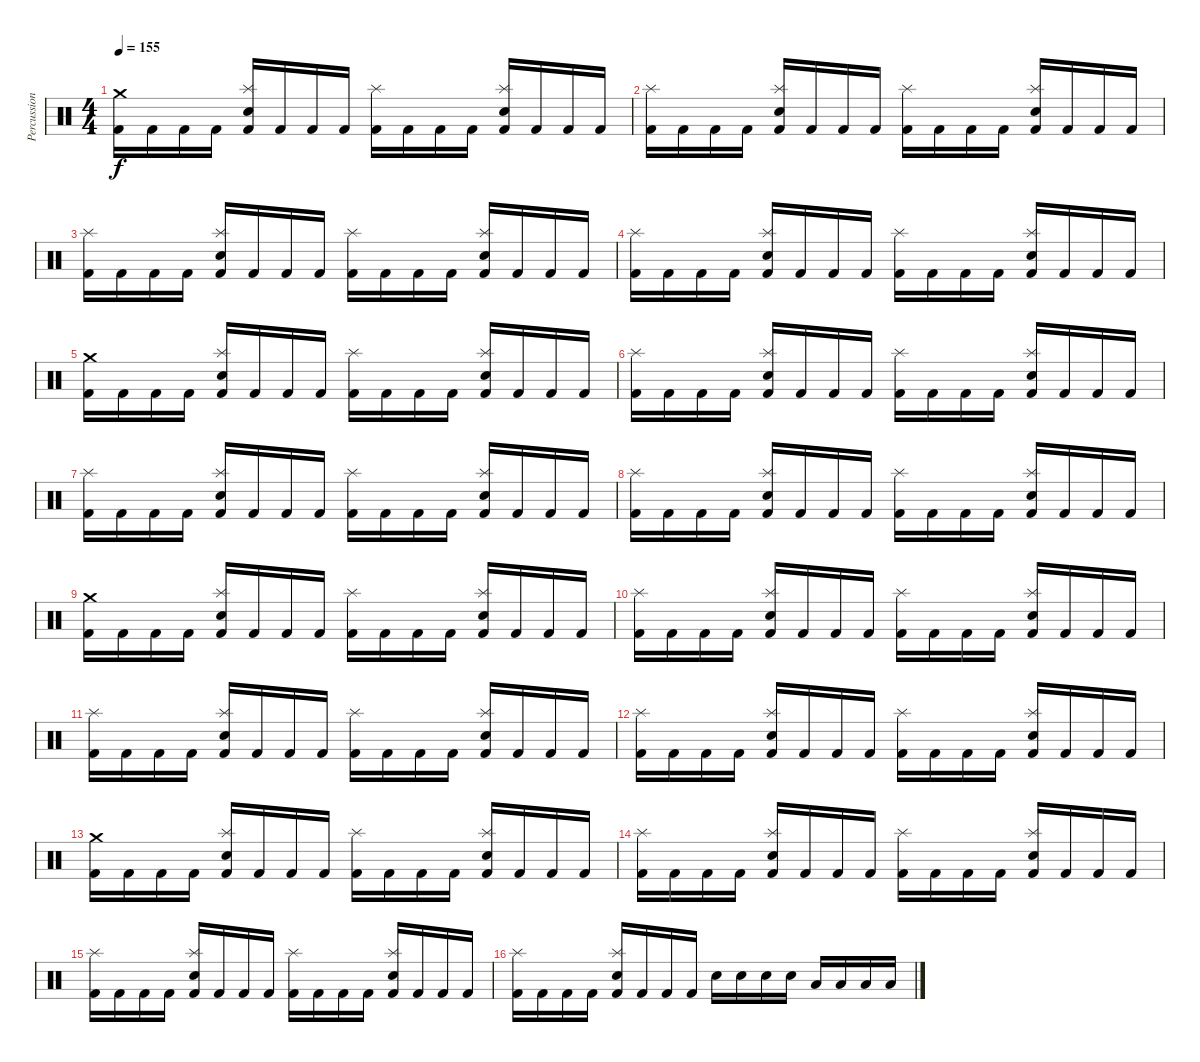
\track ("Percussions" "Percussion") {instrument percussion}
\staff {score}
\articulation defaults
\ts (4 4)
\tempo 155
\clef neutral
\ks c
("Crash medium (hit)" "Kick (hit) 2").16{dy f} "Kick (hit) 2".16 "Kick (hit) 2".16 "Kick (hit) 2".16 ("Splash (hit)" "Snare (hit) 2" "Kick (hit) 2").16 "Kick (hit) 2".16 "Kick (hit) 2".16 "Kick (hit) 2".16 ("Splash (hit)" "Kick (hit) 2").16 "Kick (hit) 2".16 "Kick (hit) 2".16 "Kick (hit) 2".16 ("Splash (hit)" "Snare (hit) 2" "Kick (hit) 2").16 "Kick (hit) 2".16 "Kick (hit) 2".16 "Kick (hit) 2".16 |
("Splash (hit)" "Kick (hit) 2").16 "Kick (hit) 2".16 "Kick (hit) 2".16 "Kick (hit) 2".16 ("Splash (hit)" "Snare (hit) 2" "Kick (hit) 2").16 "Kick (hit) 2".16 "Kick (hit) 2".16 "Kick (hit) 2".16 ("Splash (hit)" "Kick (hit) 2").16 "Kick (hit) 2".16 "Kick (hit) 2".16 "Kick (hit) 2".16 ("Splash (hit)" "Snare (hit) 2" "Kick (hit) 2").16 "Kick (hit) 2".16 "Kick (hit) 2".16 "Kick (hit) 2".16 |
("Splash (hit)" "Kick (hit) 2").16 "Kick (hit) 2".16 "Kick (hit) 2".16 "Kick (hit) 2".16 ("Splash (hit)" "Snare (hit) 2" "Kick (hit) 2").16 "Kick (hit) 2".16 "Kick (hit) 2".16 "Kick (hit) 2".16 ("Splash (hit)" "Kick (hit) 2").16 "Kick (hit) 2".16 "Kick (hit) 2".16 "Kick (hit) 2".16 ("Splash (hit)" "Snare (hit) 2" "Kick (hit) 2").16 "Kick (hit) 2".16 "Kick (hit) 2".16 "Kick (hit) 2".16 |
("Splash (hit)" "Kick (hit) 2").16 "Kick (hit) 2".16 "Kick (hit) 2".16 "Kick (hit) 2".16 ("Splash (hit)" "Snare (hit) 2" "Kick (hit) 2").16 "Kick (hit) 2".16 "Kick (hit) 2".16 "Kick (hit) 2".16 ("Splash (hit)" "Kick (hit) 2").16 "Kick (hit) 2".16 "Kick (hit) 2".16 "Kick (hit) 2".16 ("Splash (hit)" "Snare (hit) 2" "Kick (hit) 2").16 "Kick (hit) 2".16 "Kick (hit) 2".16 "Kick (hit) 2".16 |
("Crash medium (hit)" "Kick (hit) 2").16 "Kick (hit) 2".16 "Kick (hit) 2".16 "Kick (hit) 2".16 ("Splash (hit)" "Snare (hit) 2" "Kick (hit) 2").16 "Kick (hit) 2".16 "Kick (hit) 2".16 "Kick (hit) 2".16 ("Splash (hit)" "Kick (hit) 2").16 "Kick (hit) 2".16 "Kick (hit) 2".16 "Kick (hit) 2".16 ("Splash (hit)" "Snare (hit) 2" "Kick (hit) 2").16 "Kick (hit) 2".16 "Kick (hit) 2".16 "Kick (hit) 2".16 |
("Splash (hit)" "Kick (hit) 2").16 "Kick (hit) 2".16 "Kick (hit) 2".16 "Kick (hit) 2".16 ("Splash (hit)" "Snare (hit) 2" "Kick (hit) 2").16 "Kick (hit) 2".16 "Kick (hit) 2".16 "Kick (hit) 2".16 ("Splash (hit)" "Kick (hit) 2").16 "Kick (hit) 2".16 "Kick (hit) 2".16 "Kick (hit) 2".16 ("Splash (hit)" "Snare (hit) 2" "Kick (hit) 2").16 "Kick (hit) 2".16 "Kick (hit) 2".16 "Kick (hit) 2".16 |
("Splash (hit)" "Kick (hit) 2").16 "Kick (hit) 2".16 "Kick (hit) 2".16 "Kick (hit) 2".16 ("Splash (hit)" "Snare (hit) 2" "Kick (hit) 2").16 "Kick (hit) 2".16 "Kick (hit) 2".16 "Kick (hit) 2".16 ("Splash (hit)" "Kick (hit) 2").16 "Kick (hit) 2".16 "Kick (hit) 2".16 "Kick (hit) 2".16 ("Splash (hit)" "Snare (hit) 2" "Kick (hit) 2").16 "Kick (hit) 2".16 "Kick (hit) 2".16 "Kick (hit) 2".16 |
("Splash (hit)" "Kick (hit) 2").16 "Kick (hit) 2".16 "Kick (hit) 2".16 "Kick (hit) 2".16 ("Splash (hit)" "Snare (hit) 2" "Kick (hit) 2").16 "Kick (hit) 2".16 "Kick (hit) 2".16 "Kick (hit) 2".16 ("Splash (hit)" "Kick (hit) 2").16 "Kick (hit) 2".16 "Kick (hit) 2".16 "Kick (hit) 2".16 ("Splash (hit)" "Snare (hit) 2" "Kick (hit) 2").16 "Kick (hit) 2".16 "Kick (hit) 2".16 "Kick (hit) 2".16 |
("Crash medium (hit)" "Kick (hit) 2").16 "Kick (hit) 2".16 "Kick (hit) 2".16 "Kick (hit) 2".16 ("Splash (hit)" "Snare (hit) 2" "Kick (hit) 2").16 "Kick (hit) 2".16 "Kick (hit) 2".16 "Kick (hit) 2".16 ("Splash (hit)" "Kick (hit) 2").16 "Kick (hit) 2".16 "Kick (hit) 2".16 "Kick (hit) 2".16 ("Splash (hit)" "Snare (hit) 2" "Kick (hit) 2").16 "Kick (hit) 2".16 "Kick (hit) 2".16 "Kick (hit) 2".16 |
("Splash (hit)" "Kick (hit) 2").16 "Kick (hit) 2".16 "Kick (hit) 2".16 "Kick (hit) 2".16 ("Splash (hit)" "Snare (hit) 2" "Kick (hit) 2").16 "Kick (hit) 2".16 "Kick (hit) 2".16 "Kick (hit) 2".16 ("Splash (hit)" "Kick (hit) 2").16 "Kick (hit) 2".16 "Kick (hit) 2".16 "Kick (hit) 2".16 ("Splash (hit)" "Snare (hit) 2" "Kick (hit) 2").16 "Kick (hit) 2".16 "Kick (hit) 2".16 "Kick (hit) 2".16 |
("Splash (hit)" "Kick (hit) 2").16 "Kick (hit) 2".16 "Kick (hit) 2".16 "Kick (hit) 2".16 ("Splash (hit)" "Snare (hit) 2" "Kick (hit) 2").16 "Kick (hit) 2".16 "Kick (hit) 2".16 "Kick (hit) 2".16 ("Splash (hit)" "Kick (hit) 2").16 "Kick (hit) 2".16 "Kick (hit) 2".16 "Kick (hit) 2".16 ("Splash (hit)" "Snare (hit) 2" "Kick (hit) 2").16 "Kick (hit) 2".16 "Kick (hit) 2".16 "Kick (hit) 2".16 |
("Splash (hit)" "Kick (hit) 2").16 "Kick (hit) 2".16 "Kick (hit) 2".16 "Kick (hit) 2".16 ("Splash (hit)" "Snare (hit) 2" "Kick (hit) 2").16 "Kick (hit) 2".16 "Kick (hit) 2".16 "Kick (hit) 2".16 ("Splash (hit)" "Kick (hit) 2").16 "Kick (hit) 2".16 "Kick (hit) 2".16 "Kick (hit) 2".16 ("Splash (hit)" "Snare (hit) 2" "Kick (hit) 2").16 "Kick (hit) 2".16 "Kick (hit) 2".16 "Kick (hit) 2".16 |
("Crash medium (hit)" "Kick (hit) 2").16 "Kick (hit) 2".16 "Kick (hit) 2".16 "Kick (hit) 2".16 ("Splash (hit)" "Snare (hit) 2" "Kick (hit) 2").16 "Kick (hit) 2".16 "Kick (hit) 2".16 "Kick (hit) 2".16 ("Splash (hit)" "Kick (hit) 2").16 "Kick (hit) 2".16 "Kick (hit) 2".16 "Kick (hit) 2".16 ("Splash (hit)" "Snare (hit) 2" "Kick (hit) 2").16 "Kick (hit) 2".16 "Kick (hit) 2".16 "Kick (hit) 2".16 |
("Splash (hit)" "Kick (hit) 2").16 "Kick (hit) 2".16 "Kick (hit) 2".16 "Kick (hit) 2".16 ("Splash (hit)" "Snare (hit) 2" "Kick (hit) 2").16 "Kick (hit) 2".16 "Kick (hit) 2".16 "Kick (hit) 2".16 ("Splash (hit)" "Kick (hit) 2").16 "Kick (hit) 2".16 "Kick (hit) 2".16 "Kick (hit) 2".16 ("Splash (hit)" "Snare (hit) 2" "Kick (hit) 2").16 "Kick (hit) 2".16 "Kick (hit) 2".16 "Kick (hit) 2".16 |
("Splash (hit)" "Kick (hit) 2").16 "Kick (hit) 2".16 "Kick (hit) 2".16 "Kick (hit) 2".16 ("Splash (hit)" "Snare (hit) 2" "Kick (hit) 2").16 "Kick (hit) 2".16 "Kick (hit) 2".16 "Kick (hit) 2".16 ("Splash (hit)" "Kick (hit) 2").16 "Kick (hit) 2".16 "Kick (hit) 2".16 "Kick (hit) 2".16 ("Splash (hit)" "Snare (hit) 2" "Kick (hit) 2").16 "Kick (hit) 2".16 "Kick (hit) 2".16 "Kick (hit) 2".16 |
("Splash (hit)" "Kick (hit) 2").16 "Kick (hit) 2".16 "Kick (hit) 2".16 "Kick (hit) 2".16 ("Splash (hit)" "Snare (hit) 2" "Kick (hit) 2").16 "Kick (hit) 2".16 "Kick (hit) 2".16 "Kick (hit) 2".16 "Snare (hit) 2".16 "Snare (hit) 2".16 "Snare (hit) 2".16 "Snare (hit) 2".16 "Low Tom (hit)".16 "Low Tom (hit)".16 "Low Tom (hit)".16 "Low Tom (hit)".16
